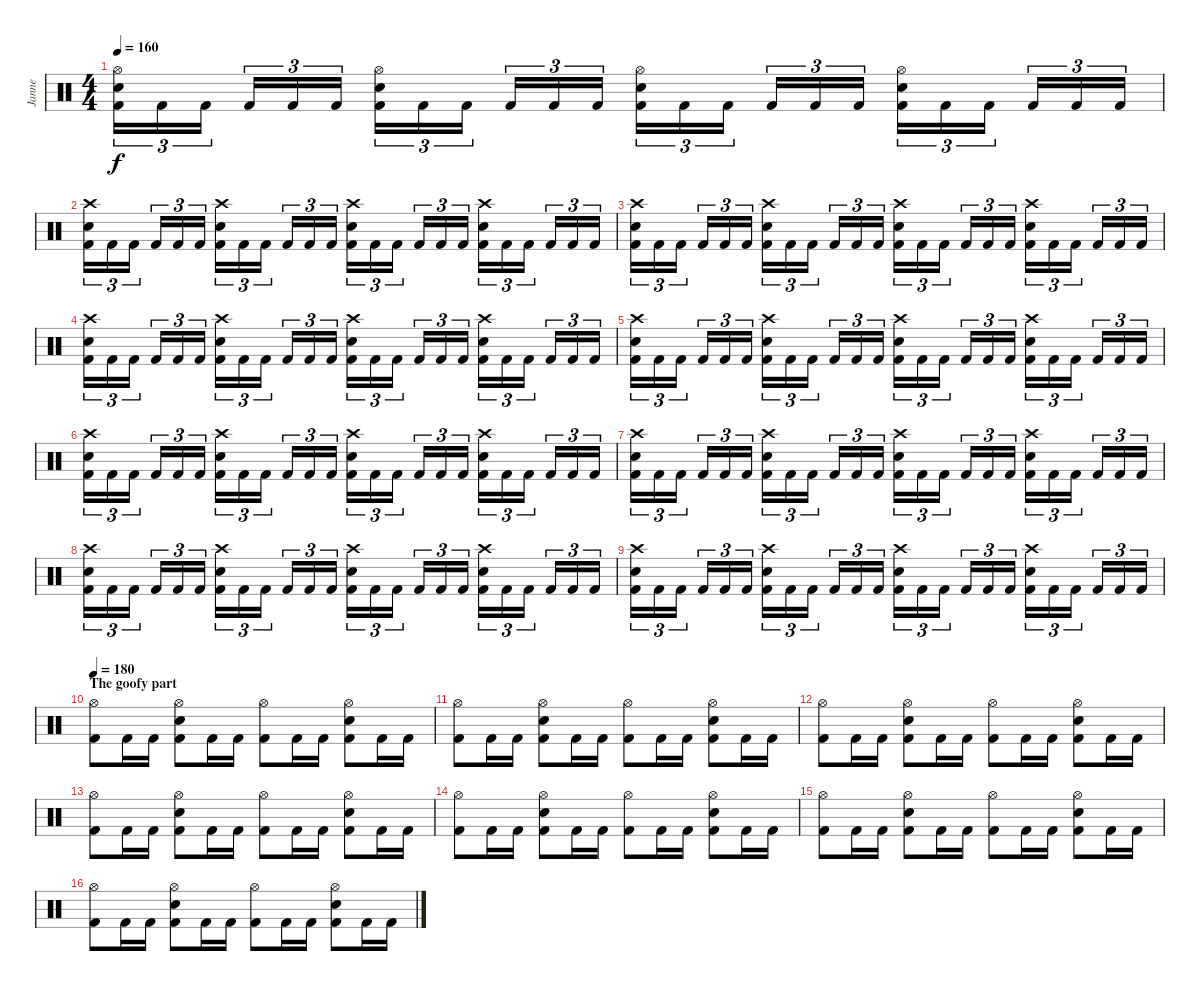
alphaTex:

\track ("Janne" "Janne") {instrument percussion}
\staff {score}
\articulation defaults
\ts (4 4)
\tempo 160
\clef neutral
\ks c
("Hi-Hat (open)" "Electric Snare (hit)" "Kick (hit) 2").16{tu (3 2) dy f} "Kick (hit) 2".16{tu (3 2)} "Kick (hit) 2".16{tu (3 2)} "Kick (hit) 2".16{tu (3 2)} "Kick (hit) 2".16{tu (3 2)} "Kick (hit) 2".16{tu (3 2)} ("Hi-Hat (open)" "Electric Snare (hit)" "Kick (hit) 2").16{tu (3 2)} "Kick (hit) 2".16{tu (3 2)} "Kick (hit) 2".16{tu (3 2)} "Kick (hit) 2".16{tu (3 2)} "Kick (hit) 2".16{tu (3 2)} "Kick (hit) 2".16{tu (3 2)} ("Hi-Hat (open)" "Electric Snare (hit)" "Kick (hit) 2").16{tu (3 2)} "Kick (hit) 2".16{tu (3 2)} "Kick (hit) 2".16{tu (3 2)} "Kick (hit) 2".16{tu (3 2)} "Kick (hit) 2".16{tu (3 2)} "Kick (hit) 2".16{tu (3 2)} ("Hi-Hat (open)" "Electric Snare (hit)" "Kick (hit) 2").16{tu (3 2)} "Kick (hit) 2".16{tu (3 2)} "Kick (hit) 2".16{tu (3 2)} "Kick (hit) 2".16{tu (3 2)} "Kick (hit) 2".16{tu (3 2)} "Kick (hit) 2".16{tu (3 2)} |
("Crash high (hit)" "Electric Snare (hit)" "Kick (hit) 2").16{tu (3 2)} "Kick (hit) 2".16{tu (3 2)} "Kick (hit) 2".16{tu (3 2)} "Kick (hit) 2".16{tu (3 2)} "Kick (hit) 2".16{tu (3 2)} "Kick (hit) 2".16{tu (3 2)} ("Crash high (hit)" "Electric Snare (hit)" "Kick (hit) 2").16{tu (3 2)} "Kick (hit) 2".16{tu (3 2)} "Kick (hit) 2".16{tu (3 2)} "Kick (hit) 2".16{tu (3 2)} "Kick (hit) 2".16{tu (3 2)} "Kick (hit) 2".16{tu (3 2)} ("Crash high (hit)" "Electric Snare (hit)" "Kick (hit) 2").16{tu (3 2)} "Kick (hit) 2".16{tu (3 2)} "Kick (hit) 2".16{tu (3 2)} "Kick (hit) 2".16{tu (3 2)} "Kick (hit) 2".16{tu (3 2)} "Kick (hit) 2".16{tu (3 2)} ("Crash high (hit)" "Electric Snare (hit)" "Kick (hit) 2").16{tu (3 2)} "Kick (hit) 2".16{tu (3 2)} "Kick (hit) 2".16{tu (3 2)} "Kick (hit) 2".16{tu (3 2)} "Kick (hit) 2".16{tu (3 2)} "Kick (hit) 2".16{tu (3 2)} |
("Crash high (hit)" "Electric Snare (hit)" "Kick (hit) 2").16{tu (3 2)} "Kick (hit) 2".16{tu (3 2)} "Kick (hit) 2".16{tu (3 2)} "Kick (hit) 2".16{tu (3 2)} "Kick (hit) 2".16{tu (3 2)} "Kick (hit) 2".16{tu (3 2)} ("Crash high (hit)" "Electric Snare (hit)" "Kick (hit) 2").16{tu (3 2)} "Kick (hit) 2".16{tu (3 2)} "Kick (hit) 2".16{tu (3 2)} "Kick (hit) 2".16{tu (3 2)} "Kick (hit) 2".16{tu (3 2)} "Kick (hit) 2".16{tu (3 2)} ("Crash high (hit)" "Electric Snare (hit)" "Kick (hit) 2").16{tu (3 2)} "Kick (hit) 2".16{tu (3 2)} "Kick (hit) 2".16{tu (3 2)} "Kick (hit) 2".16{tu (3 2)} "Kick (hit) 2".16{tu (3 2)} "Kick (hit) 2".16{tu (3 2)} ("Crash high (hit)" "Electric Snare (hit)" "Kick (hit) 2").16{tu (3 2)} "Kick (hit) 2".16{tu (3 2)} "Kick (hit) 2".16{tu (3 2)} "Kick (hit) 2".16{tu (3 2)} "Kick (hit) 2".16{tu (3 2)} "Kick (hit) 2".16{tu (3 2)} |
("Crash high (hit)" "Electric Snare (hit)" "Kick (hit) 2").16{tu (3 2)} "Kick (hit) 2".16{tu (3 2)} "Kick (hit) 2".16{tu (3 2)} "Kick (hit) 2".16{tu (3 2)} "Kick (hit) 2".16{tu (3 2)} "Kick (hit) 2".16{tu (3 2)} ("Crash high (hit)" "Electric Snare (hit)" "Kick (hit) 2").16{tu (3 2)} "Kick (hit) 2".16{tu (3 2)} "Kick (hit) 2".16{tu (3 2)} "Kick (hit) 2".16{tu (3 2)} "Kick (hit) 2".16{tu (3 2)} "Kick (hit) 2".16{tu (3 2)} ("Crash high (hit)" "Electric Snare (hit)" "Kick (hit) 2").16{tu (3 2)} "Kick (hit) 2".16{tu (3 2)} "Kick (hit) 2".16{tu (3 2)} "Kick (hit) 2".16{tu (3 2)} "Kick (hit) 2".16{tu (3 2)} "Kick (hit) 2".16{tu (3 2)} ("Crash high (hit)" "Electric Snare (hit)" "Kick (hit) 2").16{tu (3 2)} "Kick (hit) 2".16{tu (3 2)} "Kick (hit) 2".16{tu (3 2)} "Kick (hit) 2".16{tu (3 2)} "Kick (hit) 2".16{tu (3 2)} "Kick (hit) 2".16{tu (3 2)} |
("Crash high (hit)" "Electric Snare (hit)" "Kick (hit) 2").16{tu (3 2)} "Kick (hit) 2".16{tu (3 2)} "Kick (hit) 2".16{tu (3 2)} "Kick (hit) 2".16{tu (3 2)} "Kick (hit) 2".16{tu (3 2)} "Kick (hit) 2".16{tu (3 2)} ("Crash high (hit)" "Electric Snare (hit)" "Kick (hit) 2").16{tu (3 2)} "Kick (hit) 2".16{tu (3 2)} "Kick (hit) 2".16{tu (3 2)} "Kick (hit) 2".16{tu (3 2)} "Kick (hit) 2".16{tu (3 2)} "Kick (hit) 2".16{tu (3 2)} ("Crash high (hit)" "Electric Snare (hit)" "Kick (hit) 2").16{tu (3 2)} "Kick (hit) 2".16{tu (3 2)} "Kick (hit) 2".16{tu (3 2)} "Kick (hit) 2".16{tu (3 2)} "Kick (hit) 2".16{tu (3 2)} "Kick (hit) 2".16{tu (3 2)} ("Crash high (hit)" "Electric Snare (hit)" "Kick (hit) 2").16{tu (3 2)} "Kick (hit) 2".16{tu (3 2)} "Kick (hit) 2".16{tu (3 2)} "Kick (hit) 2".16{tu (3 2)} "Kick (hit) 2".16{tu (3 2)} "Kick (hit) 2".16{tu (3 2)} |
("Crash high (hit)" "Electric Snare (hit)" "Kick (hit) 2").16{tu (3 2)} "Kick (hit) 2".16{tu (3 2)} "Kick (hit) 2".16{tu (3 2)} "Kick (hit) 2".16{tu (3 2)} "Kick (hit) 2".16{tu (3 2)} "Kick (hit) 2".16{tu (3 2)} ("Crash high (hit)" "Electric Snare (hit)" "Kick (hit) 2").16{tu (3 2)} "Kick (hit) 2".16{tu (3 2)} "Kick (hit) 2".16{tu (3 2)} "Kick (hit) 2".16{tu (3 2)} "Kick (hit) 2".16{tu (3 2)} "Kick (hit) 2".16{tu (3 2)} ("Crash high (hit)" "Electric Snare (hit)" "Kick (hit) 2").16{tu (3 2)} "Kick (hit) 2".16{tu (3 2)} "Kick (hit) 2".16{tu (3 2)} "Kick (hit) 2".16{tu (3 2)} "Kick (hit) 2".16{tu (3 2)} "Kick (hit) 2".16{tu (3 2)} ("Crash high (hit)" "Electric Snare (hit)" "Kick (hit) 2").16{tu (3 2)} "Kick (hit) 2".16{tu (3 2)} "Kick (hit) 2".16{tu (3 2)} "Kick (hit) 2".16{tu (3 2)} "Kick (hit) 2".16{tu (3 2)} "Kick (hit) 2".16{tu (3 2)} |
("Crash high (hit)" "Electric Snare (hit)" "Kick (hit) 2").16{tu (3 2)} "Kick (hit) 2".16{tu (3 2)} "Kick (hit) 2".16{tu (3 2)} "Kick (hit) 2".16{tu (3 2)} "Kick (hit) 2".16{tu (3 2)} "Kick (hit) 2".16{tu (3 2)} ("Crash high (hit)" "Electric Snare (hit)" "Kick (hit) 2").16{tu (3 2)} "Kick (hit) 2".16{tu (3 2)} "Kick (hit) 2".16{tu (3 2)} "Kick (hit) 2".16{tu (3 2)} "Kick (hit) 2".16{tu (3 2)} "Kick (hit) 2".16{tu (3 2)} ("Crash high (hit)" "Electric Snare (hit)" "Kick (hit) 2").16{tu (3 2)} "Kick (hit) 2".16{tu (3 2)} "Kick (hit) 2".16{tu (3 2)} "Kick (hit) 2".16{tu (3 2)} "Kick (hit) 2".16{tu (3 2)} "Kick (hit) 2".16{tu (3 2)} ("Crash high (hit)" "Electric Snare (hit)" "Kick (hit) 2").16{tu (3 2)} "Kick (hit) 2".16{tu (3 2)} "Kick (hit) 2".16{tu (3 2)} "Kick (hit) 2".16{tu (3 2)} "Kick (hit) 2".16{tu (3 2)} "Kick (hit) 2".16{tu (3 2)} |
("Crash high (hit)" "Electric Snare (hit)" "Kick (hit) 2").16{tu (3 2)} "Kick (hit) 2".16{tu (3 2)} "Kick (hit) 2".16{tu (3 2)} "Kick (hit) 2".16{tu (3 2)} "Kick (hit) 2".16{tu (3 2)} "Kick (hit) 2".16{tu (3 2)} ("Crash high (hit)" "Electric Snare (hit)" "Kick (hit) 2").16{tu (3 2)} "Kick (hit) 2".16{tu (3 2)} "Kick (hit) 2".16{tu (3 2)} "Kick (hit) 2".16{tu (3 2)} "Kick (hit) 2".16{tu (3 2)} "Kick (hit) 2".16{tu (3 2)} ("Crash high (hit)" "Electric Snare (hit)" "Kick (hit) 2").16{tu (3 2)} "Kick (hit) 2".16{tu (3 2)} "Kick (hit) 2".16{tu (3 2)} "Kick (hit) 2".16{tu (3 2)} "Kick (hit) 2".16{tu (3 2)} "Kick (hit) 2".16{tu (3 2)} ("Crash high (hit)" "Electric Snare (hit)" "Kick (hit) 2").16{tu (3 2)} "Kick (hit) 2".16{tu (3 2)} "Kick (hit) 2".16{tu (3 2)} "Kick (hit) 2".16{tu (3 2)} "Kick (hit) 2".16{tu (3 2)} "Kick (hit) 2".16{tu (3 2)} |
("Crash high (hit)" "Electric Snare (hit)" "Kick (hit) 2").16{tu (3 2)} "Kick (hit) 2".16{tu (3 2)} "Kick (hit) 2".16{tu (3 2)} "Kick (hit) 2".16{tu (3 2)} "Kick (hit) 2".16{tu (3 2)} "Kick (hit) 2".16{tu (3 2)} ("Crash high (hit)" "Electric Snare (hit)" "Kick (hit) 2").16{tu (3 2)} "Kick (hit) 2".16{tu (3 2)} "Kick (hit) 2".16{tu (3 2)} "Kick (hit) 2".16{tu (3 2)} "Kick (hit) 2".16{tu (3 2)} "Kick (hit) 2".16{tu (3 2)} ("Crash high (hit)" "Electric Snare (hit)" "Kick (hit) 2").16{tu (3 2)} "Kick (hit) 2".16{tu (3 2)} "Kick (hit) 2".16{tu (3 2)} "Kick (hit) 2".16{tu (3 2)} "Kick (hit) 2".16{tu (3 2)} "Kick (hit) 2".16{tu (3 2)} ("Crash high (hit)" "Electric Snare (hit)" "Kick (hit) 2").16{tu (3 2)} "Kick (hit) 2".16{tu (3 2)} "Kick (hit) 2".16{tu (3 2)} "Kick (hit) 2".16{tu (3 2)} "Kick (hit) 2".16{tu (3 2)} "Kick (hit) 2".16{tu (3 2)} |
\section ("" "The goofy part")
\tempo 180
("Hi-Hat (open)" "Kick (hit) 2").8 "Kick (hit) 2".16 "Kick (hit) 2".16 ("Hi-Hat (open)" "Electric Snare (hit)" "Kick (hit) 2").8 "Kick (hit) 2".16 "Kick (hit) 2".16 ("Hi-Hat (open)" "Kick (hit) 2").8 "Kick (hit) 2".16 "Kick (hit) 2".16 ("Hi-Hat (open)" "Electric Snare (hit)" "Kick (hit) 2").8 "Kick (hit) 2".16 "Kick (hit) 2".16 |
("Hi-Hat (open)" "Kick (hit) 2").8 "Kick (hit) 2".16 "Kick (hit) 2".16 ("Hi-Hat (open)" "Electric Snare (hit)" "Kick (hit) 2").8 "Kick (hit) 2".16 "Kick (hit) 2".16 ("Hi-Hat (open)" "Kick (hit) 2").8 "Kick (hit) 2".16 "Kick (hit) 2".16 ("Hi-Hat (open)" "Electric Snare (hit)" "Kick (hit) 2").8 "Kick (hit) 2".16 "Kick (hit) 2".16 |
("Hi-Hat (open)" "Kick (hit) 2").8 "Kick (hit) 2".16 "Kick (hit) 2".16 ("Hi-Hat (open)" "Electric Snare (hit)" "Kick (hit) 2").8 "Kick (hit) 2".16 "Kick (hit) 2".16 ("Hi-Hat (open)" "Kick (hit) 2").8 "Kick (hit) 2".16 "Kick (hit) 2".16 ("Hi-Hat (open)" "Electric Snare (hit)" "Kick (hit) 2").8 "Kick (hit) 2".16 "Kick (hit) 2".16 |
("Hi-Hat (open)" "Kick (hit) 2").8 "Kick (hit) 2".16 "Kick (hit) 2".16 ("Hi-Hat (open)" "Electric Snare (hit)" "Kick (hit) 2").8 "Kick (hit) 2".16 "Kick (hit) 2".16 ("Hi-Hat (open)" "Kick (hit) 2").8 "Kick (hit) 2".16 "Kick (hit) 2".16 ("Hi-Hat (open)" "Electric Snare (hit)" "Kick (hit) 2").8 "Kick (hit) 2".16 "Kick (hit) 2".16 |
("Hi-Hat (open)" "Kick (hit) 2").8 "Kick (hit) 2".16 "Kick (hit) 2".16 ("Hi-Hat (open)" "Electric Snare (hit)" "Kick (hit) 2").8 "Kick (hit) 2".16 "Kick (hit) 2".16 ("Hi-Hat (open)" "Kick (hit) 2").8 "Kick (hit) 2".16 "Kick (hit) 2".16 ("Hi-Hat (open)" "Electric Snare (hit)" "Kick (hit) 2").8 "Kick (hit) 2".16 "Kick (hit) 2".16 |
("Hi-Hat (open)" "Kick (hit) 2").8 "Kick (hit) 2".16 "Kick (hit) 2".16 ("Hi-Hat (open)" "Electric Snare (hit)" "Kick (hit) 2").8 "Kick (hit) 2".16 "Kick (hit) 2".16 ("Hi-Hat (open)" "Kick (hit) 2").8 "Kick (hit) 2".16 "Kick (hit) 2".16 ("Hi-Hat (open)" "Electric Snare (hit)" "Kick (hit) 2").8 "Kick (hit) 2".16 "Kick (hit) 2".16 |
("Hi-Hat (open)" "Kick (hit) 2").8 "Kick (hit) 2".16 "Kick (hit) 2".16 ("Hi-Hat (open)" "Electric Snare (hit)" "Kick (hit) 2").8 "Kick (hit) 2".16 "Kick (hit) 2".16 ("Hi-Hat (open)" "Kick (hit) 2").8 "Kick (hit) 2".16 "Kick (hit) 2".16 ("Hi-Hat (open)" "Electric Snare (hit)" "Kick (hit) 2").8 "Kick (hit) 2".16 "Kick (hit) 2".16
